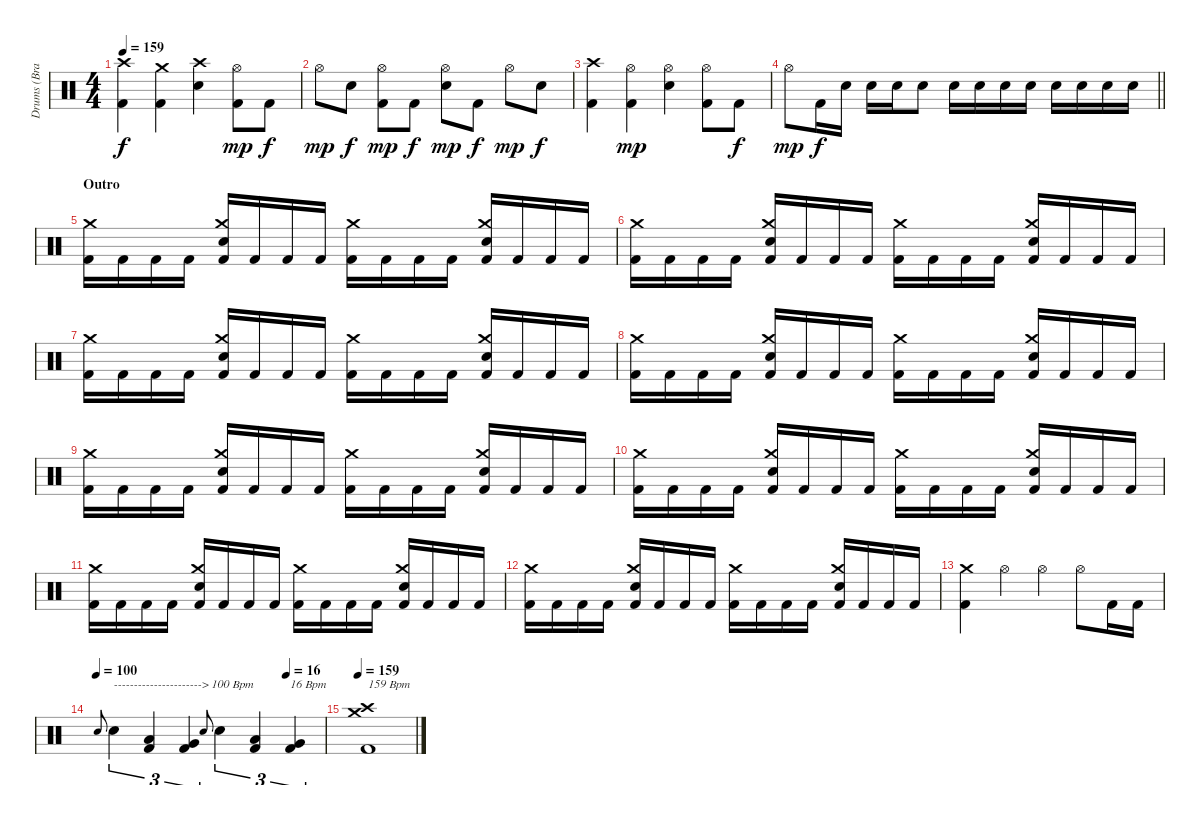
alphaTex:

\track ("Drums (Brandon Saller)" "Drums (Bra") {instrument percussion}
\staff {score}
\articulation defaults
\ts (4 4)
\tempo 159
\clef neutral
\ks c
("Crash high (hit)" "Kick (hit) 2").4{dy f} ("Crash medium (hit)" "Kick (hit) 2").4 ("Crash high (hit)" "Electric Snare (hit)").4 ("Hi-Hat (open)" "Kick (hit) 2").8{dy mp} "Kick (hit) 2".8{dy f} |
"Hi-Hat (open)".8{dy mp} "Electric Snare (hit)".8{dy f} ("Hi-Hat (open)" "Kick (hit) 2").8{dy mp} "Kick (hit) 2".8{dy f} ("Hi-Hat (open)" "Electric Snare (hit)").8{dy mp} "Kick (hit) 2".8{dy f} "Hi-Hat (open)".8{dy mp} "Electric Snare (hit)".8{dy f} |
("Crash high (hit)" "Kick (hit) 2").4 ("Hi-Hat (open)" "Kick (hit) 2").4{dy mp} ("Hi-Hat (open)" "Electric Snare (hit)").4 ("Hi-Hat (open)" "Kick (hit) 2").8 "Kick (hit) 2".8{dy f} |
\barLineRight lightlight "Hi-Hat (open)".8{dy mp} "Kick (hit) 2".16{dy f} "Electric Snare (hit)".16 "Electric Snare (hit)".16 "Electric Snare (hit)".16 "Electric Snare (hit)".8 "Electric Snare (hit)".16 "Electric Snare (hit)".16 "Electric Snare (hit)".16 "Electric Snare (hit)".16 "Electric Snare (hit)".16 "Electric Snare (hit)".16 "Electric Snare (hit)".16 "Electric Snare (hit)".16
|
\section ("" "Outro")
("Crash medium (hit)" "Kick (hit) 2").16 "Kick (hit) 2".16 "Kick (hit) 2".16 "Kick (hit) 2".16 ("Crash medium (hit)" "Electric Snare (hit)" "Kick (hit) 2").16 "Kick (hit) 2".16 "Kick (hit) 2".16 "Kick (hit) 2".16 ("Crash medium (hit)" "Kick (hit) 2").16 "Kick (hit) 2".16 "Kick (hit) 2".16 "Kick (hit) 2".16 ("Crash medium (hit)" "Electric Snare (hit)" "Kick (hit) 2").16 "Kick (hit) 2".16 "Kick (hit) 2".16 "Kick (hit) 2".16 |
("Crash medium (hit)" "Kick (hit) 2").16 "Kick (hit) 2".16 "Kick (hit) 2".16 "Kick (hit) 2".16 ("Crash medium (hit)" "Electric Snare (hit)" "Kick (hit) 2").16 "Kick (hit) 2".16 "Kick (hit) 2".16 "Kick (hit) 2".16 ("Crash medium (hit)" "Kick (hit) 2").16 "Kick (hit) 2".16 "Kick (hit) 2".16 "Kick (hit) 2".16 ("Crash medium (hit)" "Electric Snare (hit)" "Kick (hit) 2").16 "Kick (hit) 2".16 "Kick (hit) 2".16 "Kick (hit) 2".16 |
("Crash medium (hit)" "Kick (hit) 2").16 "Kick (hit) 2".16 "Kick (hit) 2".16 "Kick (hit) 2".16 ("Crash medium (hit)" "Electric Snare (hit)" "Kick (hit) 2").16 "Kick (hit) 2".16 "Kick (hit) 2".16 "Kick (hit) 2".16 ("Crash medium (hit)" "Kick (hit) 2").16 "Kick (hit) 2".16 "Kick (hit) 2".16 "Kick (hit) 2".16 ("Crash medium (hit)" "Electric Snare (hit)" "Kick (hit) 2").16 "Kick (hit) 2".16 "Kick (hit) 2".16 "Kick (hit) 2".16 |
("Crash medium (hit)" "Kick (hit) 2").16 "Kick (hit) 2".16 "Kick (hit) 2".16 "Kick (hit) 2".16 ("Crash medium (hit)" "Electric Snare (hit)" "Kick (hit) 2").16 "Kick (hit) 2".16 "Kick (hit) 2".16 "Kick (hit) 2".16 ("Crash medium (hit)" "Kick (hit) 2").16 "Kick (hit) 2".16 "Kick (hit) 2".16 "Kick (hit) 2".16 ("Crash medium (hit)" "Electric Snare (hit)" "Kick (hit) 2").16 "Kick (hit) 2".16 "Kick (hit) 2".16 "Kick (hit) 2".16 |
("Crash medium (hit)" "Kick (hit) 2").16 "Kick (hit) 2".16 "Kick (hit) 2".16 "Kick (hit) 2".16 ("Crash medium (hit)" "Electric Snare (hit)" "Kick (hit) 2").16 "Kick (hit) 2".16 "Kick (hit) 2".16 "Kick (hit) 2".16 ("Crash medium (hit)" "Kick (hit) 2").16 "Kick (hit) 2".16 "Kick (hit) 2".16 "Kick (hit) 2".16 ("Crash medium (hit)" "Electric Snare (hit)" "Kick (hit) 2").16 "Kick (hit) 2".16 "Kick (hit) 2".16 "Kick (hit) 2".16 |
("Crash medium (hit)" "Kick (hit) 2").16 "Kick (hit) 2".16 "Kick (hit) 2".16 "Kick (hit) 2".16 ("Crash medium (hit)" "Electric Snare (hit)" "Kick (hit) 2").16 "Kick (hit) 2".16 "Kick (hit) 2".16 "Kick (hit) 2".16 ("Crash medium (hit)" "Kick (hit) 2").16 "Kick (hit) 2".16 "Kick (hit) 2".16 "Kick (hit) 2".16 ("Crash medium (hit)" "Electric Snare (hit)" "Kick (hit) 2").16 "Kick (hit) 2".16 "Kick (hit) 2".16 "Kick (hit) 2".16 |
("Crash medium (hit)" "Kick (hit) 2").16 "Kick (hit) 2".16 "Kick (hit) 2".16 "Kick (hit) 2".16 ("Crash medium (hit)" "Electric Snare (hit)" "Kick (hit) 2").16 "Kick (hit) 2".16 "Kick (hit) 2".16 "Kick (hit) 2".16 ("Crash medium (hit)" "Kick (hit) 2").16 "Kick (hit) 2".16 "Kick (hit) 2".16 "Kick (hit) 2".16 ("Crash medium (hit)" "Electric Snare (hit)" "Kick (hit) 2").16 "Kick (hit) 2".16 "Kick (hit) 2".16 "Kick (hit) 2".16 |
("Crash medium (hit)" "Kick (hit) 2").16 "Kick (hit) 2".16 "Kick (hit) 2".16 "Kick (hit) 2".16 ("Crash medium (hit)" "Electric Snare (hit)" "Kick (hit) 2").16 "Kick (hit) 2".16 "Kick (hit) 2".16 "Kick (hit) 2".16 ("Crash medium (hit)" "Kick (hit) 2").16 "Kick (hit) 2".16 "Kick (hit) 2".16 "Kick (hit) 2".16 ("Crash medium (hit)" "Electric Snare (hit)" "Kick (hit) 2").16 "Kick (hit) 2".16 "Kick (hit) 2".16 "Kick (hit) 2".16 |
("Crash medium (hit)" "Kick (hit) 2").4 "Hi-Hat (open)".4 "Hi-Hat (open)".4 "Hi-Hat (open)".8 "Kick (hit) 2".16 "Kick (hit) 2".16 |
\tempo 100
\tempo (16 0.8333333333333334)
"Electric Snare (hit)".8{gr onbeat} "Electric Snare (hit)".4{tu (3 2) txt "----------------------> 100 Bpm"} ("Low Tom (hit)" "Kick (hit) 2").4{tu (3 2)} ("Very Low Tom (hit)" "Kick (hit) 2").4{tu (3 2)} "Electric Snare (hit)".8{gr onbeat} "Electric Snare (hit)".4{tu (3 2)} ("Low Tom (hit)" "Kick (hit) 2").4{tu (3 2)} ("Very Low Tom (hit)" "Kick (hit) 2").4{tu (3 2) txt "16 Bpm"} |
\tempo 159
("Crash high (hit)" "Crash medium (hit)" "Kick (hit) 2").1{txt "159 Bpm"}
